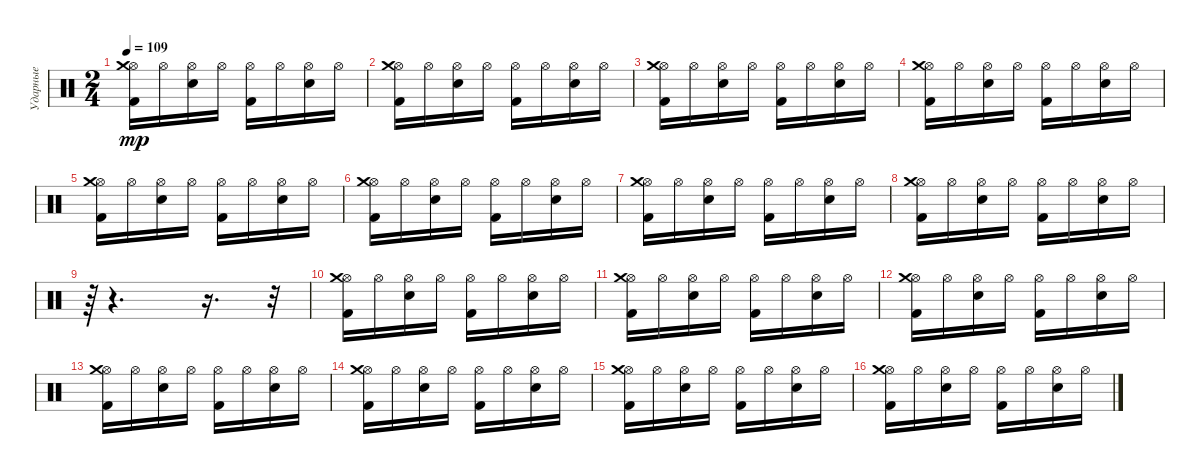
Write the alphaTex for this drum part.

\track ("Ударные" "Ударные") {instrument percussion}
\staff {score}
\articulation defaults
\ts (2 4)
\tempo 109
\clef neutral
\ks c
("Kick (hit) 2" "Hi-Hat (open)" "Crash medium (hit)").16{dy mp} "Hi-Hat (open)".16 ("Electric Snare (hit)" "Hi-Hat (open)").16 "Hi-Hat (open)".16 ("Kick (hit) 2" "Hi-Hat (open)").16 "Hi-Hat (open)".16 ("Electric Snare (hit)" "Hi-Hat (open)").16 "Hi-Hat (open)".16 |
("Kick (hit) 2" "Hi-Hat (open)" "Crash medium (hit)").16 "Hi-Hat (open)".16 ("Electric Snare (hit)" "Hi-Hat (open)").16 "Hi-Hat (open)".16 ("Kick (hit) 2" "Hi-Hat (open)").16 "Hi-Hat (open)".16 ("Electric Snare (hit)" "Hi-Hat (open)").16 "Hi-Hat (open)".16 |
("Kick (hit) 2" "Hi-Hat (open)" "Crash medium (hit)").16 "Hi-Hat (open)".16 ("Electric Snare (hit)" "Hi-Hat (open)").16 "Hi-Hat (open)".16 ("Kick (hit) 2" "Hi-Hat (open)").16 "Hi-Hat (open)".16 ("Electric Snare (hit)" "Hi-Hat (open)").16 "Hi-Hat (open)".16 |
("Kick (hit) 2" "Hi-Hat (open)" "Crash medium (hit)").16 "Hi-Hat (open)".16 ("Electric Snare (hit)" "Hi-Hat (open)").16 "Hi-Hat (open)".16 ("Kick (hit) 2" "Hi-Hat (open)").16 "Hi-Hat (open)".16 ("Electric Snare (hit)" "Hi-Hat (open)").16 "Hi-Hat (open)".16 |
("Kick (hit) 2" "Hi-Hat (open)" "Crash medium (hit)").16 "Hi-Hat (open)".16 ("Electric Snare (hit)" "Hi-Hat (open)").16 "Hi-Hat (open)".16 ("Kick (hit) 2" "Hi-Hat (open)").16 "Hi-Hat (open)".16 ("Electric Snare (hit)" "Hi-Hat (open)").16 "Hi-Hat (open)".16 |
("Kick (hit) 2" "Hi-Hat (open)" "Crash medium (hit)").16 "Hi-Hat (open)".16 ("Electric Snare (hit)" "Hi-Hat (open)").16 "Hi-Hat (open)".16 ("Kick (hit) 2" "Hi-Hat (open)").16 "Hi-Hat (open)".16 ("Electric Snare (hit)" "Hi-Hat (open)").16 "Hi-Hat (open)".16 |
("Kick (hit) 2" "Hi-Hat (open)" "Crash medium (hit)").16 "Hi-Hat (open)".16 ("Electric Snare (hit)" "Hi-Hat (open)").16 "Hi-Hat (open)".16 ("Kick (hit) 2" "Hi-Hat (open)").16 "Hi-Hat (open)".16 ("Electric Snare (hit)" "Hi-Hat (open)").16 "Hi-Hat (open)".16 |
("Kick (hit) 2" "Hi-Hat (open)" "Crash medium (hit)").16 "Hi-Hat (open)".16 ("Electric Snare (hit)" "Hi-Hat (open)").16 "Hi-Hat (open)".16 ("Kick (hit) 2" "Hi-Hat (open)").16 "Hi-Hat (open)".16 ("Electric Snare (hit)" "Hi-Hat (open)").16 "Hi-Hat (open)".16 |
r.64{tu (3 2)} r.4{d} r.16{d} r.32{tu (3 2)} |
("Kick (hit) 2" "Hi-Hat (open)" "Crash medium (hit)").16 "Hi-Hat (open)".16 ("Electric Snare (hit)" "Hi-Hat (open)").16 "Hi-Hat (open)".16 ("Kick (hit) 2" "Hi-Hat (open)").16 "Hi-Hat (open)".16 ("Electric Snare (hit)" "Hi-Hat (open)").16 "Hi-Hat (open)".16 |
("Kick (hit) 2" "Hi-Hat (open)" "Crash medium (hit)").16 "Hi-Hat (open)".16 ("Electric Snare (hit)" "Hi-Hat (open)").16 "Hi-Hat (open)".16 ("Kick (hit) 2" "Hi-Hat (open)").16 "Hi-Hat (open)".16 ("Electric Snare (hit)" "Hi-Hat (open)").16 "Hi-Hat (open)".16 |
("Kick (hit) 2" "Hi-Hat (open)" "Crash medium (hit)").16 "Hi-Hat (open)".16 ("Electric Snare (hit)" "Hi-Hat (open)").16 "Hi-Hat (open)".16 ("Kick (hit) 2" "Hi-Hat (open)").16 "Hi-Hat (open)".16 ("Electric Snare (hit)" "Hi-Hat (open)").16 "Hi-Hat (open)".16 |
("Kick (hit) 2" "Hi-Hat (open)" "Crash medium (hit)").16 "Hi-Hat (open)".16 ("Electric Snare (hit)" "Hi-Hat (open)").16 "Hi-Hat (open)".16 ("Kick (hit) 2" "Hi-Hat (open)").16 "Hi-Hat (open)".16 ("Electric Snare (hit)" "Hi-Hat (open)").16 "Hi-Hat (open)".16 |
("Kick (hit) 2" "Hi-Hat (open)" "Crash medium (hit)").16 "Hi-Hat (open)".16 ("Electric Snare (hit)" "Hi-Hat (open)").16 "Hi-Hat (open)".16 ("Kick (hit) 2" "Hi-Hat (open)").16 "Hi-Hat (open)".16 ("Electric Snare (hit)" "Hi-Hat (open)").16 "Hi-Hat (open)".16 |
("Kick (hit) 2" "Hi-Hat (open)" "Crash medium (hit)").16 "Hi-Hat (open)".16 ("Electric Snare (hit)" "Hi-Hat (open)").16 "Hi-Hat (open)".16 ("Kick (hit) 2" "Hi-Hat (open)").16 "Hi-Hat (open)".16 ("Electric Snare (hit)" "Hi-Hat (open)").16 "Hi-Hat (open)".16 |
("Kick (hit) 2" "Hi-Hat (open)" "Crash medium (hit)").16 "Hi-Hat (open)".16 ("Electric Snare (hit)" "Hi-Hat (open)").16 "Hi-Hat (open)".16 ("Kick (hit) 2" "Hi-Hat (open)").16 "Hi-Hat (open)".16 ("Electric Snare (hit)" "Hi-Hat (open)").16 "Hi-Hat (open)".16
